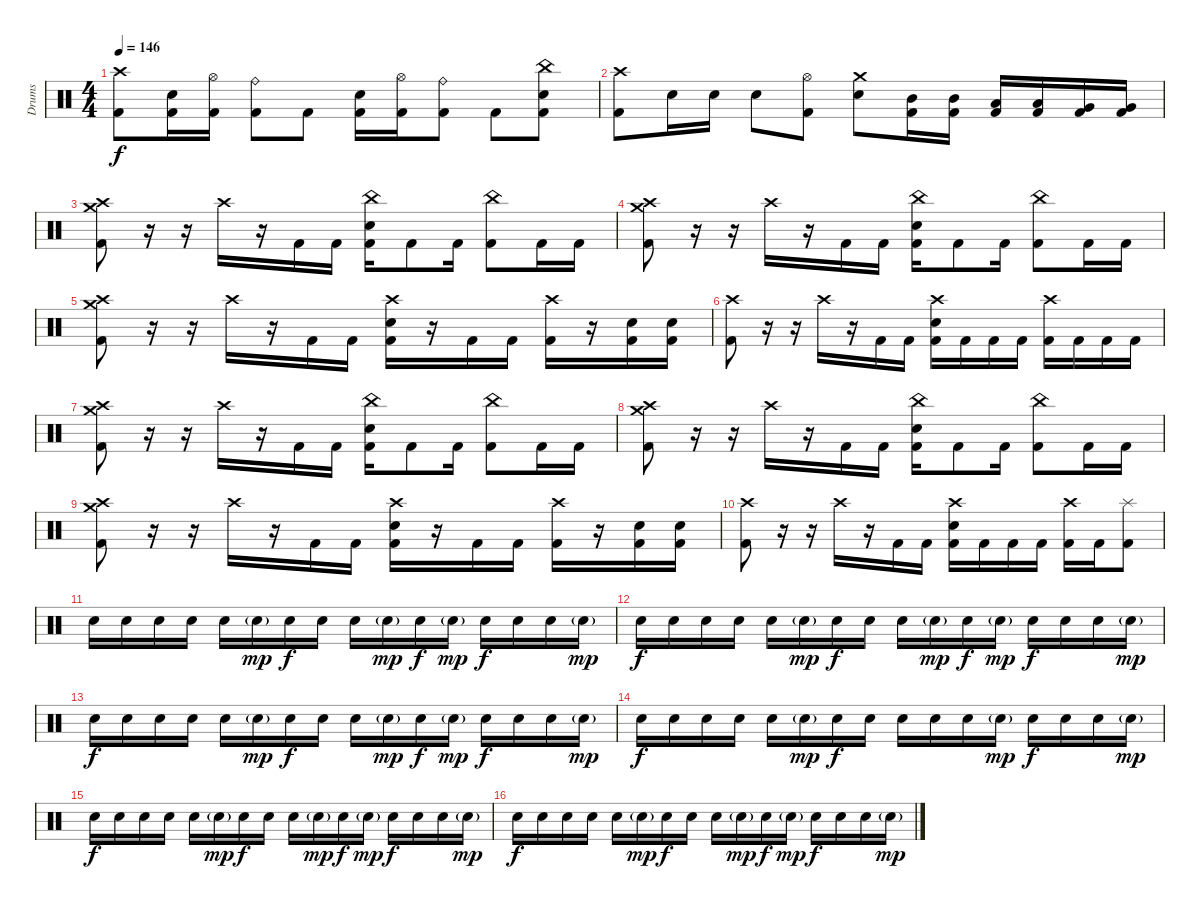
\track ("Drums" "Drums") {solo instrument percussion}
\staff {score}
\articulation defaults
\ts (4 4)
\tempo 146
\clef neutral
\ks c
("Crash high (hit)" "Kick (hit) 2").8{dy f} ("Electric Snare (hit)" "Kick (hit) 2").16 ("Hi-Hat (open)" "Kick (hit) 2").16 ("Ride (bell)" "Kick (hit) 2").8 "Kick (hit) 2".8 ("Electric Snare (hit)" "Kick (hit) 2").16 ("Hi-Hat (open)" "Kick (hit) 2").16 ("Ride (bell)" "Kick (hit) 2").8 "Kick (hit) 2".8 ("China (hit)" "Electric Snare (hit)" "Kick (hit) 2").8 |
("Crash high (hit)" "Kick (hit) 2").8 "Electric Snare (hit)".16 "Electric Snare (hit)".16 "Electric Snare (hit)".8 ("Hi-Hat (open)" "Kick (hit) 2").8 ("Crash medium (hit)" "Electric Snare (hit)").8 ("Mid Tom (hit)" "Kick (hit) 2").16 ("Mid Tom (hit)" "Kick (hit) 2").16 ("Low Tom (hit)" "Kick (hit) 2").16 ("Low Tom (hit)" "Kick (hit) 2").16 ("Very Low Tom (hit)" "Kick (hit) 2").16 ("Very Low Tom (hit)" "Kick (hit) 2").16 |
("Crash high (hit)" "Crash medium (hit)" "Kick (hit) 2").8 r.16 r.16 "Crash high (hit)".16 r.16 "Kick (hit) 2".16 "Kick (hit) 2".16 ("China (hit)" "Electric Snare (hit)" "Kick (hit) 2").16 "Kick (hit) 2".8 "Kick (hit) 2".16 ("China (hit)" "Kick (hit) 2").8 "Kick (hit) 2".16 "Kick (hit) 2".16 |
("Crash high (hit)" "Crash medium (hit)" "Kick (hit) 2").8 r.16 r.16 "Crash high (hit)".16 r.16 "Kick (hit) 2".16 "Kick (hit) 2".16 ("China (hit)" "Electric Snare (hit)" "Kick (hit) 2").16 "Kick (hit) 2".8 "Kick (hit) 2".16 ("China (hit)" "Kick (hit) 2").8 "Kick (hit) 2".16 "Kick (hit) 2".16 |
("Crash high (hit)" "Crash medium (hit)" "Kick (hit) 2").8 r.16 r.16 "Crash high (hit)".16 r.16 "Kick (hit) 2".16 "Kick (hit) 2".16 ("Crash high (hit)" "Electric Snare (hit)" "Kick (hit) 2").16 r.16 "Kick (hit) 2".16 "Kick (hit) 2".16 ("Crash high (hit)" "Kick (hit) 2").16 r.16 ("Electric Snare (hit)" "Kick (hit) 2").16 ("Electric Snare (hit)" "Kick (hit) 2").16 |
("Crash high (hit)" "Kick (hit) 2").8 r.16 r.16 "Crash high (hit)".16 r.16 "Kick (hit) 2".16 "Kick (hit) 2".16 ("Crash high (hit)" "Electric Snare (hit)" "Kick (hit) 2").16 "Kick (hit) 2".16 "Kick (hit) 2".16 "Kick (hit) 2".16 ("Crash high (hit)" "Kick (hit) 2").16 "Kick (hit) 2".16 "Kick (hit) 2".16 "Kick (hit) 2".16 |
("Crash high (hit)" "Crash medium (hit)" "Kick (hit) 2").8 r.16 r.16 "Crash high (hit)".16 r.16 "Kick (hit) 2".16 "Kick (hit) 2".16 ("China (hit)" "Electric Snare (hit)" "Kick (hit) 2").16 "Kick (hit) 2".8 "Kick (hit) 2".16 ("China (hit)" "Kick (hit) 2").8 "Kick (hit) 2".16 "Kick (hit) 2".16 |
("Crash high (hit)" "Crash medium (hit)" "Kick (hit) 2").8 r.16 r.16 "Crash high (hit)".16 r.16 "Kick (hit) 2".16 "Kick (hit) 2".16 ("China (hit)" "Electric Snare (hit)" "Kick (hit) 2").16 "Kick (hit) 2".8 "Kick (hit) 2".16 ("China (hit)" "Kick (hit) 2").8 "Kick (hit) 2".16 "Kick (hit) 2".16 |
("Crash high (hit)" "Crash medium (hit)" "Kick (hit) 2").8 r.16 r.16 "Crash high (hit)".16 r.16 "Kick (hit) 2".16 "Kick (hit) 2".16 ("Crash high (hit)" "Electric Snare (hit)" "Kick (hit) 2").16 r.16 "Kick (hit) 2".16 "Kick (hit) 2".16 ("Crash high (hit)" "Kick (hit) 2").16 r.16 ("Electric Snare (hit)" "Kick (hit) 2").16 ("Electric Snare (hit)" "Kick (hit) 2").16 |
("Crash high (hit)" "Kick (hit) 2").8 r.16 r.16 "Crash high (hit)".16 r.16 "Kick (hit) 2".16 "Kick (hit) 2".16 ("Crash high (hit)" "Electric Snare (hit)" "Kick (hit) 2").16 "Kick (hit) 2".16 "Kick (hit) 2".16 "Kick (hit) 2".16 ("Crash high (hit)" "Kick (hit) 2").16 "Kick (hit) 2".16 ("Splash (hit)" "Kick (hit) 2").8 |
"Electric Snare (hit)".16 "Electric Snare (hit)".16 "Electric Snare (hit)".16 "Electric Snare (hit)".16 "Electric Snare (hit)".16 "Electric Snare (hit)"{g}.16{dy mp} "Electric Snare (hit)".16{dy f} "Electric Snare (hit)".16 "Electric Snare (hit)".16 "Electric Snare (hit)"{g}.16{dy mp} "Electric Snare (hit)".16{dy f} "Electric Snare (hit)"{g}.16{dy mp} "Electric Snare (hit)".16{dy f} "Electric Snare (hit)".16 "Electric Snare (hit)".16 "Electric Snare (hit)"{g}.16{dy mp} |
"Electric Snare (hit)".16{dy f} "Electric Snare (hit)".16 "Electric Snare (hit)".16 "Electric Snare (hit)".16 "Electric Snare (hit)".16 "Electric Snare (hit)"{g}.16{dy mp} "Electric Snare (hit)".16{dy f} "Electric Snare (hit)".16 "Electric Snare (hit)".16 "Electric Snare (hit)"{g}.16{dy mp} "Electric Snare (hit)".16{dy f} "Electric Snare (hit)"{g}.16{dy mp} "Electric Snare (hit)".16{dy f} "Electric Snare (hit)".16 "Electric Snare (hit)".16 "Electric Snare (hit)"{g}.16{dy mp} |
"Electric Snare (hit)".16{dy f} "Electric Snare (hit)".16 "Electric Snare (hit)".16 "Electric Snare (hit)".16 "Electric Snare (hit)".16 "Electric Snare (hit)"{g}.16{dy mp} "Electric Snare (hit)".16{dy f} "Electric Snare (hit)".16 "Electric Snare (hit)".16 "Electric Snare (hit)"{g}.16{dy mp} "Electric Snare (hit)".16{dy f} "Electric Snare (hit)"{g}.16{dy mp} "Electric Snare (hit)".16{dy f} "Electric Snare (hit)".16 "Electric Snare (hit)".16 "Electric Snare (hit)"{g}.16{dy mp} |
"Electric Snare (hit)".16{dy f} "Electric Snare (hit)".16 "Electric Snare (hit)".16 "Electric Snare (hit)".16 "Electric Snare (hit)".16 "Electric Snare (hit)"{g}.16{dy mp} "Electric Snare (hit)".16{dy f} "Electric Snare (hit)".16 "Electric Snare (hit)".16 "Electric Snare (hit)".16 "Electric Snare (hit)".16 "Electric Snare (hit)"{g}.16{dy mp} "Electric Snare (hit)".16{dy f} "Electric Snare (hit)".16 "Electric Snare (hit)".16 "Electric Snare (hit)"{g}.16{dy mp} |
"Electric Snare (hit)".16{dy f} "Electric Snare (hit)".16 "Electric Snare (hit)".16 "Electric Snare (hit)".16 "Electric Snare (hit)".16 "Electric Snare (hit)"{g}.16{dy mp} "Electric Snare (hit)".16{dy f} "Electric Snare (hit)".16 "Electric Snare (hit)".16 "Electric Snare (hit)"{g}.16{dy mp} "Electric Snare (hit)".16{dy f} "Electric Snare (hit)"{g}.16{dy mp} "Electric Snare (hit)".16{dy f} "Electric Snare (hit)".16 "Electric Snare (hit)".16 "Electric Snare (hit)"{g}.16{dy mp} |
"Electric Snare (hit)".16{dy f} "Electric Snare (hit)".16 "Electric Snare (hit)".16 "Electric Snare (hit)".16 "Electric Snare (hit)".16 "Electric Snare (hit)"{g}.16{dy mp} "Electric Snare (hit)".16{dy f} "Electric Snare (hit)".16 "Electric Snare (hit)".16 "Electric Snare (hit)"{g}.16{dy mp} "Electric Snare (hit)".16{dy f} "Electric Snare (hit)"{g}.16{dy mp} "Electric Snare (hit)".16{dy f} "Electric Snare (hit)".16 "Electric Snare (hit)".16 "Electric Snare (hit)"{g}.16{dy mp}
